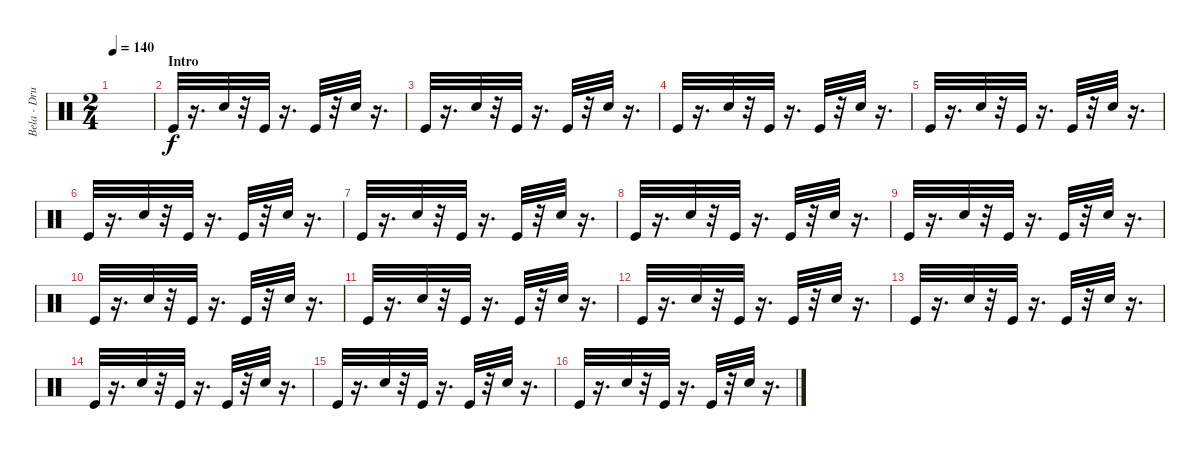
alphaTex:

\track ("Bela - Drums" "Bela - Dru") {instrument percussion}
\staff {score}
\articulation defaults
\ts (2 4)
\tempo 140
\clef neutral
\ks c
|
\section ("" "Intro")
"Kick (hit)".32 r.16{d} "Electric Snare (hit)".32 r.32 "Kick (hit)".32 r.16{d} "Kick (hit)".32 r.32 "Electric Snare (hit)".32 r.16{d} |
"Kick (hit)".32 r.16{d} "Electric Snare (hit)".32 r.32 "Kick (hit)".32 r.16{d} "Kick (hit)".32 r.32 "Electric Snare (hit)".32 r.16{d} |
"Kick (hit)".32 r.16{d} "Electric Snare (hit)".32 r.32 "Kick (hit)".32 r.16{d} "Kick (hit)".32 r.32 "Electric Snare (hit)".32 r.16{d} |
"Kick (hit)".32 r.16{d} "Electric Snare (hit)".32 r.32 "Kick (hit)".32 r.16{d} "Kick (hit)".32 r.32 "Electric Snare (hit)".32 r.16{d} |
"Kick (hit)".32 r.16{d} "Electric Snare (hit)".32 r.32 "Kick (hit)".32 r.16{d} "Kick (hit)".32 r.32 "Electric Snare (hit)".32 r.16{d} |
"Kick (hit)".32 r.16{d} "Electric Snare (hit)".32 r.32 "Kick (hit)".32 r.16{d} "Kick (hit)".32 r.32 "Electric Snare (hit)".32 r.16{d} |
"Kick (hit)".32 r.16{d} "Electric Snare (hit)".32 r.32 "Kick (hit)".32 r.16{d} "Kick (hit)".32 r.32 "Electric Snare (hit)".32 r.16{d} |
"Kick (hit)".32 r.16{d} "Electric Snare (hit)".32 r.32 "Kick (hit)".32 r.16{d} "Kick (hit)".32 r.32 "Electric Snare (hit)".32 r.16{d} |
"Kick (hit)".32 r.16{d} "Electric Snare (hit)".32 r.32 "Kick (hit)".32 r.16{d} "Kick (hit)".32 r.32 "Electric Snare (hit)".32 r.16{d} |
"Kick (hit)".32 r.16{d} "Electric Snare (hit)".32 r.32 "Kick (hit)".32 r.16{d} "Kick (hit)".32 r.32 "Electric Snare (hit)".32 r.16{d} |
"Kick (hit)".32 r.16{d} "Electric Snare (hit)".32 r.32 "Kick (hit)".32 r.16{d} "Kick (hit)".32 r.32 "Electric Snare (hit)".32 r.16{d} |
"Kick (hit)".32 r.16{d} "Electric Snare (hit)".32 r.32 "Kick (hit)".32 r.16{d} "Kick (hit)".32 r.32 "Electric Snare (hit)".32 r.16{d} |
"Kick (hit)".32 r.16{d} "Electric Snare (hit)".32 r.32 "Kick (hit)".32 r.16{d} "Kick (hit)".32 r.32 "Electric Snare (hit)".32 r.16{d} |
"Kick (hit)".32 r.16{d} "Electric Snare (hit)".32 r.32 "Kick (hit)".32 r.16{d} "Kick (hit)".32 r.32 "Electric Snare (hit)".32 r.16{d} |
"Kick (hit)".32 r.16{d} "Electric Snare (hit)".32 r.32 "Kick (hit)".32 r.16{d} "Kick (hit)".32 r.32 "Electric Snare (hit)".32 r.16{d}
